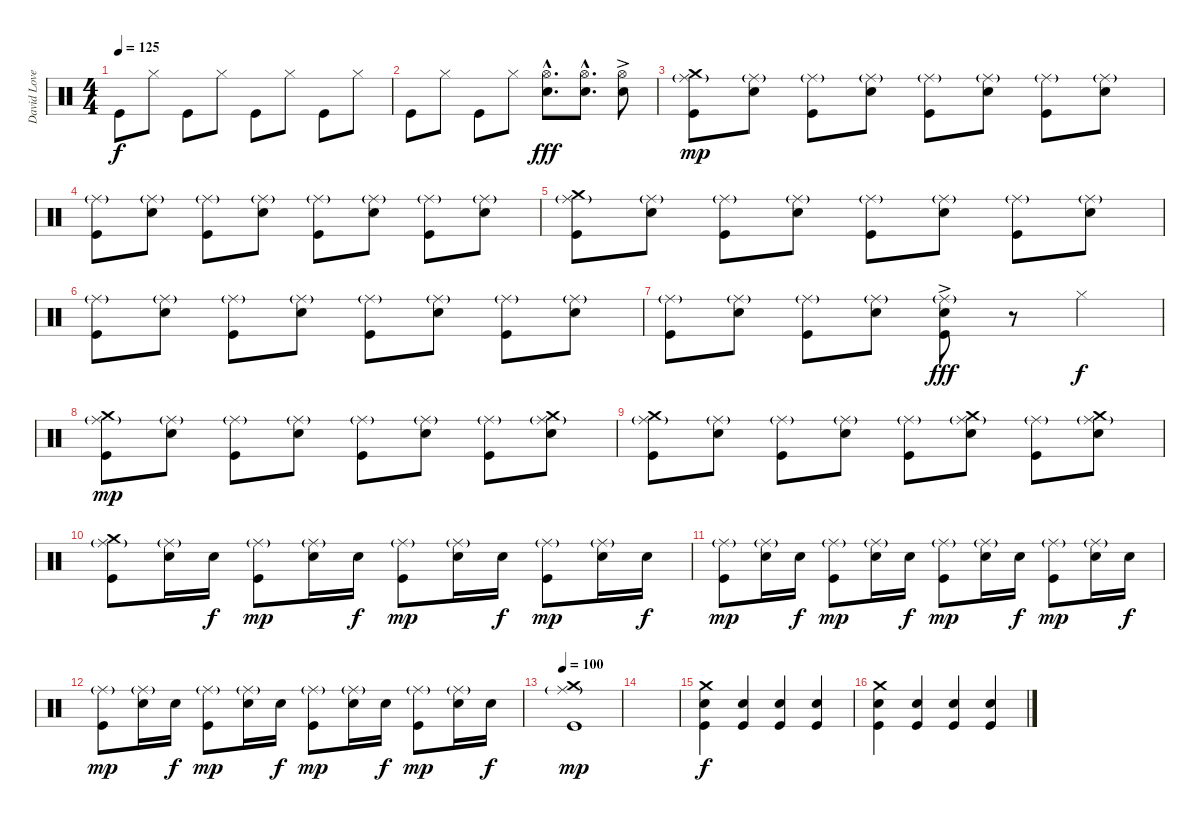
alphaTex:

\track ("David Lovering" "David Love") {instrument percussion}
\staff {score}
\articulation defaults
\ts (4 4)
\tempo 125
\clef neutral
\ks c "Kick (hit)".8{dy f} "Hi-Hat (closed)".8 "Kick (hit)".8 "Hi-Hat (closed)".8 "Kick (hit)".8 "Hi-Hat (closed)".8 "Kick (hit)".8 "Hi-Hat (closed)".8
|
"Kick (hit)".8 "Hi-Hat (closed)".8 "Kick (hit)".8 "Hi-Hat (closed)".8 ("Hi-Hat (open)"{hac} "Snare (hit) 2"{hac}).8{d dy fff} ("Hi-Hat (open)"{hac} "Snare (hit) 2"{hac}).8{d} ("Hi-Hat (open)" "Snare (hit) 2"{ac}).8 |
("Ride (middle)"{g} "Crash medium (hit)" "Kick (hit)").8{dy mp} ("Ride (middle)"{g} "Snare (hit) 2").8 ("Ride (middle)"{g} "Kick (hit)").8 ("Ride (middle)"{g} "Snare (hit) 2").8 ("Ride (middle)"{g} "Kick (hit)").8 ("Ride (middle)"{g} "Snare (hit) 2").8 ("Ride (middle)"{g} "Kick (hit)").8 ("Ride (middle)"{g} "Snare (hit) 2").8 |
("Ride (middle)"{g} "Kick (hit)").8 ("Ride (middle)"{g} "Snare (hit) 2").8 ("Ride (middle)"{g} "Kick (hit)").8 ("Ride (middle)"{g} "Snare (hit) 2").8 ("Ride (middle)"{g} "Kick (hit)").8 ("Ride (middle)"{g} "Snare (hit) 2").8 ("Ride (middle)"{g} "Kick (hit)").8 ("Ride (middle)"{g} "Snare (hit) 2").8 |
("Ride (middle)"{g} "Crash medium (hit)" "Kick (hit)").8 ("Ride (middle)"{g} "Snare (hit) 2").8 ("Ride (middle)"{g} "Kick (hit)").8 ("Ride (middle)"{g} "Snare (hit) 2").8 ("Ride (middle)"{g} "Kick (hit)").8 ("Ride (middle)"{g} "Snare (hit) 2").8 ("Ride (middle)"{g} "Kick (hit)").8 ("Ride (middle)"{g} "Snare (hit) 2").8 |
("Ride (middle)"{g} "Kick (hit)").8 ("Ride (middle)"{g} "Snare (hit) 2").8 ("Ride (middle)"{g} "Kick (hit)").8 ("Ride (middle)"{g} "Snare (hit) 2").8 ("Ride (middle)"{g} "Kick (hit)").8 ("Ride (middle)"{g} "Snare (hit) 2").8 ("Ride (middle)"{g} "Kick (hit)").8 ("Ride (middle)"{g} "Snare (hit) 2").8 |
("Ride (middle)"{g} "Kick (hit)").8 ("Ride (middle)"{g} "Snare (hit) 2").8 ("Ride (middle)"{g} "Kick (hit)").8 ("Ride (middle)"{g} "Snare (hit) 2").8 ("Ride (middle)"{g} "Snare (hit) 2" "Kick (hit)"{ac}).8{dy fff} r.8 "Hi-Hat (closed)".4{dy f} |
("Ride (middle)"{g} "Crash medium (hit)" "Kick (hit)").8{dy mp} ("Ride (middle)"{g} "Snare (hit) 2").8 ("Ride (middle)"{g} "Kick (hit)").8 ("Ride (middle)"{g} "Snare (hit) 2").8 ("Ride (middle)"{g} "Kick (hit)").8 ("Ride (middle)"{g} "Snare (hit) 2").8 ("Ride (middle)"{g} "Kick (hit)").8 ("Ride (middle)"{g} "Crash medium (hit)" "Snare (hit) 2").8 |
("Ride (middle)"{g} "Crash medium (hit)" "Kick (hit)").8 ("Ride (middle)"{g} "Snare (hit) 2").8 ("Ride (middle)"{g} "Kick (hit)").8 ("Ride (middle)"{g} "Snare (hit) 2").8 ("Ride (middle)"{g} "Kick (hit)").8 ("Ride (middle)"{g} "Crash medium (hit)" "Snare (hit) 2").8 ("Ride (middle)"{g} "Kick (hit)").8 ("Ride (middle)"{g} "Crash medium (hit)" "Snare (hit) 2").8 |
\section ("" "")
("Ride (middle)"{g} "Crash medium (hit)" "Kick (hit)").8 ("Ride (middle)"{g} "Snare (hit) 2").16 "Snare (hit) 2".16{dy f} ("Ride (middle)"{g} "Kick (hit)").8{dy mp} ("Ride (middle)"{g} "Snare (hit) 2").16 "Snare (hit) 2".16{dy f} ("Ride (middle)"{g} "Kick (hit)").8{dy mp} ("Ride (middle)"{g} "Snare (hit) 2").16 "Snare (hit) 2".16{dy f} ("Ride (middle)"{g} "Kick (hit)").8{dy mp} ("Ride (middle)"{g} "Snare (hit) 2").16 "Snare (hit) 2".16{dy f} |
("Ride (middle)"{g} "Kick (hit)").8{dy mp} ("Ride (middle)"{g} "Snare (hit) 2").16 "Snare (hit) 2".16{dy f} ("Ride (middle)"{g} "Kick (hit)").8{dy mp} ("Ride (middle)"{g} "Snare (hit) 2").16 "Snare (hit) 2".16{dy f} ("Ride (middle)"{g} "Kick (hit)").8{dy mp} ("Ride (middle)"{g} "Snare (hit) 2").16 "Snare (hit) 2".16{dy f} ("Ride (middle)"{g} "Kick (hit)").8{dy mp} ("Ride (middle)"{g} "Snare (hit) 2").16 "Snare (hit) 2".16{dy f} |
("Ride (middle)"{g} "Kick (hit)").8{dy mp} ("Ride (middle)"{g} "Snare (hit) 2").16 "Snare (hit) 2".16{dy f} ("Ride (middle)"{g} "Kick (hit)").8{dy mp} ("Ride (middle)"{g} "Snare (hit) 2").16 "Snare (hit) 2".16{dy f} ("Ride (middle)"{g} "Kick (hit)").8{dy mp} ("Ride (middle)"{g} "Snare (hit) 2").16 "Snare (hit) 2".16{dy f} ("Ride (middle)"{g} "Kick (hit)").8{dy mp} ("Ride (middle)"{g} "Snare (hit) 2").16 "Snare (hit) 2".16{dy f} |
\tempo 100
("Ride (middle)"{g} "Crash medium (hit)" "Kick (hit)").1{dy mp} |
|
("Crash medium (hit)" "Snare (hit) 2" "Kick (hit)").4{dy f} ("Snare (hit) 2" "Kick (hit)").4 ("Snare (hit) 2" "Kick (hit)").4 ("Snare (hit) 2" "Kick (hit)").4 |
("Crash medium (hit)" "Snare (hit) 2" "Kick (hit)").4 ("Snare (hit) 2" "Kick (hit)").4 ("Snare (hit) 2" "Kick (hit)").4 ("Snare (hit) 2" "Kick (hit)").4
